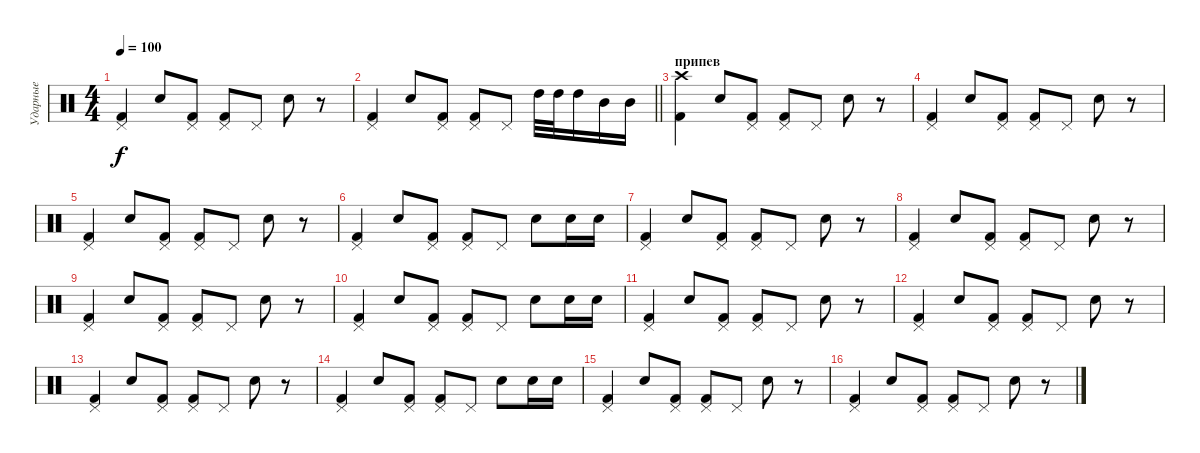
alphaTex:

\track ("Ударные" "Ударные") {instrument percussion}
\staff {score}
\articulation defaults
\ts (4 4)
\tempo 100
\clef neutral
\ks c
("Pedal Hi-Hat (hit)" "Kick (hit) 2").4{dy f} "Snare (hit) 2".8 ("Pedal Hi-Hat (hit)" "Kick (hit) 2").8 ("Pedal Hi-Hat (hit)" "Kick (hit) 2").8 "Pedal Hi-Hat (hit)".8 "Snare (hit) 2".8 r.8 |
\barLineRight lightlight
("Pedal Hi-Hat (hit)" "Kick (hit) 2").4 "Snare (hit) 2".8 ("Pedal Hi-Hat (hit)" "Kick (hit) 2").8 ("Pedal Hi-Hat (hit)" "Kick (hit) 2").8 "Pedal Hi-Hat (hit)".8 "High Tom (hit)".32 "High Tom (hit)".32 "High Tom (hit)".16 "Mid Tom (hit)".16 "Mid Tom (hit)".16 |
\section ("" "припев")
("Crash high (hit)" "Kick (hit) 2").4 "Snare (hit) 2".8 ("Pedal Hi-Hat (hit)" "Kick (hit) 2").8 ("Pedal Hi-Hat (hit)" "Kick (hit) 2").8 "Pedal Hi-Hat (hit)".8 "Snare (hit) 2".8 r.8 |
("Pedal Hi-Hat (hit)" "Kick (hit) 2").4 "Snare (hit) 2".8 ("Pedal Hi-Hat (hit)" "Kick (hit) 2").8 ("Pedal Hi-Hat (hit)" "Kick (hit) 2").8 "Pedal Hi-Hat (hit)".8 "Snare (hit) 2".8 r.8 |
("Pedal Hi-Hat (hit)" "Kick (hit) 2").4 "Snare (hit) 2".8 ("Pedal Hi-Hat (hit)" "Kick (hit) 2").8 ("Pedal Hi-Hat (hit)" "Kick (hit) 2").8 "Pedal Hi-Hat (hit)".8 "Snare (hit) 2".8 r.8 |
("Pedal Hi-Hat (hit)" "Kick (hit) 2").4 "Snare (hit) 2".8 ("Pedal Hi-Hat (hit)" "Kick (hit) 2").8 ("Pedal Hi-Hat (hit)" "Kick (hit) 2").8 "Pedal Hi-Hat (hit)".8 "Snare (hit) 2".8 "Snare (hit) 2".16 "Snare (hit) 2".16 |
("Pedal Hi-Hat (hit)" "Kick (hit) 2").4 "Snare (hit) 2".8 ("Pedal Hi-Hat (hit)" "Kick (hit) 2").8 ("Pedal Hi-Hat (hit)" "Kick (hit) 2").8 "Pedal Hi-Hat (hit)".8 "Snare (hit) 2".8 r.8 |
("Pedal Hi-Hat (hit)" "Kick (hit) 2").4 "Snare (hit) 2".8 ("Pedal Hi-Hat (hit)" "Kick (hit) 2").8 ("Pedal Hi-Hat (hit)" "Kick (hit) 2").8 "Pedal Hi-Hat (hit)".8 "Snare (hit) 2".8 r.8 |
("Pedal Hi-Hat (hit)" "Kick (hit) 2").4 "Snare (hit) 2".8 ("Pedal Hi-Hat (hit)" "Kick (hit) 2").8 ("Pedal Hi-Hat (hit)" "Kick (hit) 2").8 "Pedal Hi-Hat (hit)".8 "Snare (hit) 2".8 r.8 |
("Pedal Hi-Hat (hit)" "Kick (hit) 2").4 "Snare (hit) 2".8 ("Pedal Hi-Hat (hit)" "Kick (hit) 2").8 ("Pedal Hi-Hat (hit)" "Kick (hit) 2").8 "Pedal Hi-Hat (hit)".8 "Snare (hit) 2".8 "Snare (hit) 2".16 "Snare (hit) 2".16 |
("Pedal Hi-Hat (hit)" "Kick (hit) 2").4 "Snare (hit) 2".8 ("Pedal Hi-Hat (hit)" "Kick (hit) 2").8 ("Pedal Hi-Hat (hit)" "Kick (hit) 2").8 "Pedal Hi-Hat (hit)".8 "Snare (hit) 2".8 r.8 |
("Pedal Hi-Hat (hit)" "Kick (hit) 2").4 "Snare (hit) 2".8 ("Pedal Hi-Hat (hit)" "Kick (hit) 2").8 ("Pedal Hi-Hat (hit)" "Kick (hit) 2").8 "Pedal Hi-Hat (hit)".8 "Snare (hit) 2".8 r.8 |
("Pedal Hi-Hat (hit)" "Kick (hit) 2").4 "Snare (hit) 2".8 ("Pedal Hi-Hat (hit)" "Kick (hit) 2").8 ("Pedal Hi-Hat (hit)" "Kick (hit) 2").8 "Pedal Hi-Hat (hit)".8 "Snare (hit) 2".8 r.8 |
("Pedal Hi-Hat (hit)" "Kick (hit) 2").4 "Snare (hit) 2".8 ("Pedal Hi-Hat (hit)" "Kick (hit) 2").8 ("Pedal Hi-Hat (hit)" "Kick (hit) 2").8 "Pedal Hi-Hat (hit)".8 "Snare (hit) 2".8 "Snare (hit) 2".16 "Snare (hit) 2".16 |
("Pedal Hi-Hat (hit)" "Kick (hit) 2").4 "Snare (hit) 2".8 ("Pedal Hi-Hat (hit)" "Kick (hit) 2").8 ("Pedal Hi-Hat (hit)" "Kick (hit) 2").8 "Pedal Hi-Hat (hit)".8 "Snare (hit) 2".8 r.8 |
("Pedal Hi-Hat (hit)" "Kick (hit) 2").4 "Snare (hit) 2".8 ("Pedal Hi-Hat (hit)" "Kick (hit) 2").8 ("Pedal Hi-Hat (hit)" "Kick (hit) 2").8 "Pedal Hi-Hat (hit)".8 "Snare (hit) 2".8 r.8
